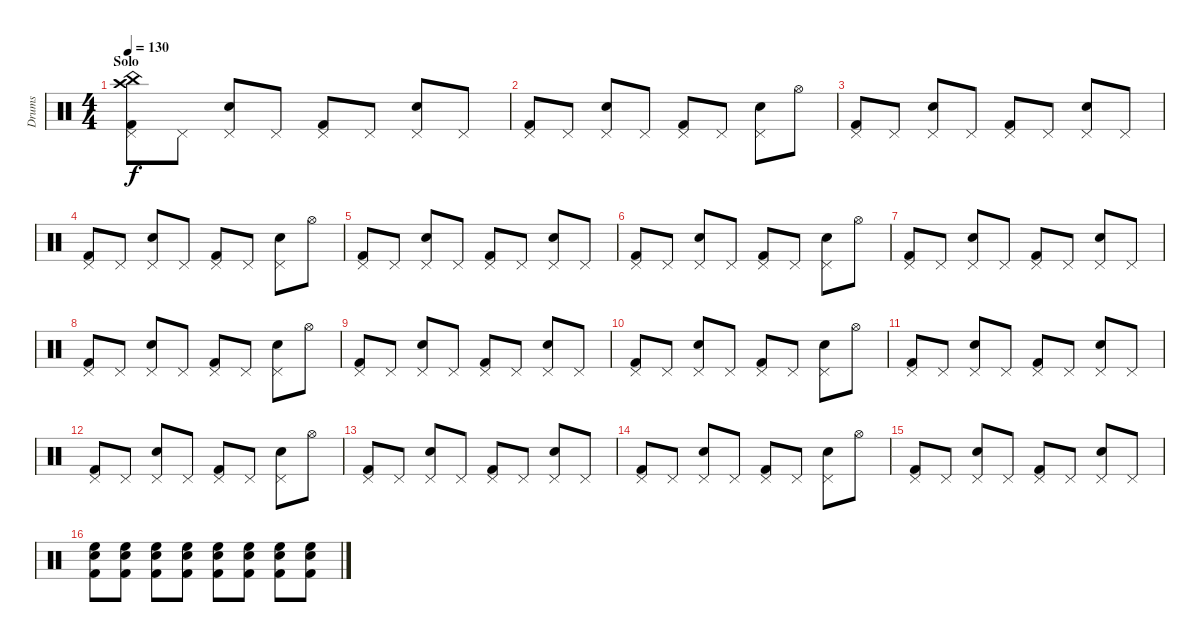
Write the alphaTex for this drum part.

\track ("Drums" "Drums") {instrument percussion}
\staff {score}
\articulation defaults
\ts (4 4)
\section ("" "Solo")
\tempo 130
\clef neutral
\ks c
("China (hit)" "Pedal Hi-Hat (hit)" "Crash high (hit)" "Kick (hit) 2").8{dy f} "Pedal Hi-Hat (hit)".8 ("Pedal Hi-Hat (hit)" "Snare (hit) 2").8 "Pedal Hi-Hat (hit)".8 ("Pedal Hi-Hat (hit)" "Kick (hit) 2").8 "Pedal Hi-Hat (hit)".8 ("Pedal Hi-Hat (hit)" "Snare (hit) 2").8 "Pedal Hi-Hat (hit)".8 |
("Pedal Hi-Hat (hit)" "Kick (hit) 2").8 "Pedal Hi-Hat (hit)".8 ("Pedal Hi-Hat (hit)" "Snare (hit) 2").8 "Pedal Hi-Hat (hit)".8 ("Pedal Hi-Hat (hit)" "Kick (hit) 2").8 "Pedal Hi-Hat (hit)".8 ("Pedal Hi-Hat (hit)" "Snare (hit) 2").8 "Hi-Hat (open)".8 |
("Pedal Hi-Hat (hit)" "Kick (hit) 2").8 "Pedal Hi-Hat (hit)".8 ("Pedal Hi-Hat (hit)" "Snare (hit) 2").8 "Pedal Hi-Hat (hit)".8 ("Pedal Hi-Hat (hit)" "Kick (hit) 2").8 "Pedal Hi-Hat (hit)".8 ("Pedal Hi-Hat (hit)" "Snare (hit) 2").8 "Pedal Hi-Hat (hit)".8 |
("Pedal Hi-Hat (hit)" "Kick (hit) 2").8 "Pedal Hi-Hat (hit)".8 ("Pedal Hi-Hat (hit)" "Snare (hit) 2").8 "Pedal Hi-Hat (hit)".8 ("Pedal Hi-Hat (hit)" "Kick (hit) 2").8 "Pedal Hi-Hat (hit)".8 ("Pedal Hi-Hat (hit)" "Snare (hit) 2").8 "Hi-Hat (open)".8 |
("Pedal Hi-Hat (hit)" "Kick (hit) 2").8 "Pedal Hi-Hat (hit)".8 ("Pedal Hi-Hat (hit)" "Snare (hit) 2").8 "Pedal Hi-Hat (hit)".8 ("Pedal Hi-Hat (hit)" "Kick (hit) 2").8 "Pedal Hi-Hat (hit)".8 ("Pedal Hi-Hat (hit)" "Snare (hit) 2").8 "Pedal Hi-Hat (hit)".8 |
("Pedal Hi-Hat (hit)" "Kick (hit) 2").8 "Pedal Hi-Hat (hit)".8 ("Pedal Hi-Hat (hit)" "Snare (hit) 2").8 "Pedal Hi-Hat (hit)".8 ("Pedal Hi-Hat (hit)" "Kick (hit) 2").8 "Pedal Hi-Hat (hit)".8 ("Pedal Hi-Hat (hit)" "Snare (hit) 2").8 "Hi-Hat (open)".8 |
("Pedal Hi-Hat (hit)" "Kick (hit) 2").8 "Pedal Hi-Hat (hit)".8 ("Pedal Hi-Hat (hit)" "Snare (hit) 2").8 "Pedal Hi-Hat (hit)".8 ("Pedal Hi-Hat (hit)" "Kick (hit) 2").8 "Pedal Hi-Hat (hit)".8 ("Pedal Hi-Hat (hit)" "Snare (hit) 2").8 "Pedal Hi-Hat (hit)".8 |
("Pedal Hi-Hat (hit)" "Kick (hit) 2").8 "Pedal Hi-Hat (hit)".8 ("Pedal Hi-Hat (hit)" "Snare (hit) 2").8 "Pedal Hi-Hat (hit)".8 ("Pedal Hi-Hat (hit)" "Kick (hit) 2").8 "Pedal Hi-Hat (hit)".8 ("Pedal Hi-Hat (hit)" "Snare (hit) 2").8 "Hi-Hat (open)".8 |
("Pedal Hi-Hat (hit)" "Kick (hit) 2").8 "Pedal Hi-Hat (hit)".8 ("Pedal Hi-Hat (hit)" "Snare (hit) 2").8 "Pedal Hi-Hat (hit)".8 ("Pedal Hi-Hat (hit)" "Kick (hit) 2").8 "Pedal Hi-Hat (hit)".8 ("Pedal Hi-Hat (hit)" "Snare (hit) 2").8 "Pedal Hi-Hat (hit)".8 |
("Pedal Hi-Hat (hit)" "Kick (hit) 2").8 "Pedal Hi-Hat (hit)".8 ("Pedal Hi-Hat (hit)" "Snare (hit) 2").8 "Pedal Hi-Hat (hit)".8 ("Pedal Hi-Hat (hit)" "Kick (hit) 2").8 "Pedal Hi-Hat (hit)".8 ("Pedal Hi-Hat (hit)" "Snare (hit) 2").8 "Hi-Hat (open)".8 |
("Pedal Hi-Hat (hit)" "Kick (hit) 2").8 "Pedal Hi-Hat (hit)".8 ("Pedal Hi-Hat (hit)" "Snare (hit) 2").8 "Pedal Hi-Hat (hit)".8 ("Pedal Hi-Hat (hit)" "Kick (hit) 2").8 "Pedal Hi-Hat (hit)".8 ("Pedal Hi-Hat (hit)" "Snare (hit) 2").8 "Pedal Hi-Hat (hit)".8 |
("Pedal Hi-Hat (hit)" "Kick (hit) 2").8 "Pedal Hi-Hat (hit)".8 ("Pedal Hi-Hat (hit)" "Snare (hit) 2").8 "Pedal Hi-Hat (hit)".8 ("Pedal Hi-Hat (hit)" "Kick (hit) 2").8 "Pedal Hi-Hat (hit)".8 ("Pedal Hi-Hat (hit)" "Snare (hit) 2").8 "Hi-Hat (open)".8 |
("Pedal Hi-Hat (hit)" "Kick (hit) 2").8 "Pedal Hi-Hat (hit)".8 ("Pedal Hi-Hat (hit)" "Snare (hit) 2").8 "Pedal Hi-Hat (hit)".8 ("Pedal Hi-Hat (hit)" "Kick (hit) 2").8 "Pedal Hi-Hat (hit)".8 ("Pedal Hi-Hat (hit)" "Snare (hit) 2").8 "Pedal Hi-Hat (hit)".8 |
("Pedal Hi-Hat (hit)" "Kick (hit) 2").8 "Pedal Hi-Hat (hit)".8 ("Pedal Hi-Hat (hit)" "Snare (hit) 2").8 "Pedal Hi-Hat (hit)".8 ("Pedal Hi-Hat (hit)" "Kick (hit) 2").8 "Pedal Hi-Hat (hit)".8 ("Pedal Hi-Hat (hit)" "Snare (hit) 2").8 "Hi-Hat (open)".8 |
("Pedal Hi-Hat (hit)" "Kick (hit) 2").8 "Pedal Hi-Hat (hit)".8 ("Pedal Hi-Hat (hit)" "Snare (hit) 2").8 "Pedal Hi-Hat (hit)".8 ("Pedal Hi-Hat (hit)" "Kick (hit) 2").8 "Pedal Hi-Hat (hit)".8 ("Pedal Hi-Hat (hit)" "Snare (hit) 2").8 "Pedal Hi-Hat (hit)".8 |
("High Floor Tom (hit)" "Snare (hit) 2" "Kick (hit) 2").8 ("High Floor Tom (hit)" "Snare (hit) 2" "Kick (hit) 2").8 ("High Floor Tom (hit)" "Snare (hit) 2" "Kick (hit) 2").8 ("High Floor Tom (hit)" "Snare (hit) 2" "Kick (hit) 2").8 ("High Floor Tom (hit)" "Snare (hit) 2" "Kick (hit) 2").8 ("High Floor Tom (hit)" "Snare (hit) 2" "Kick (hit) 2").8 ("High Floor Tom (hit)" "Snare (hit) 2" "Kick (hit) 2").8 ("High Floor Tom (hit)" "Snare (hit) 2" "Kick (hit) 2").8
